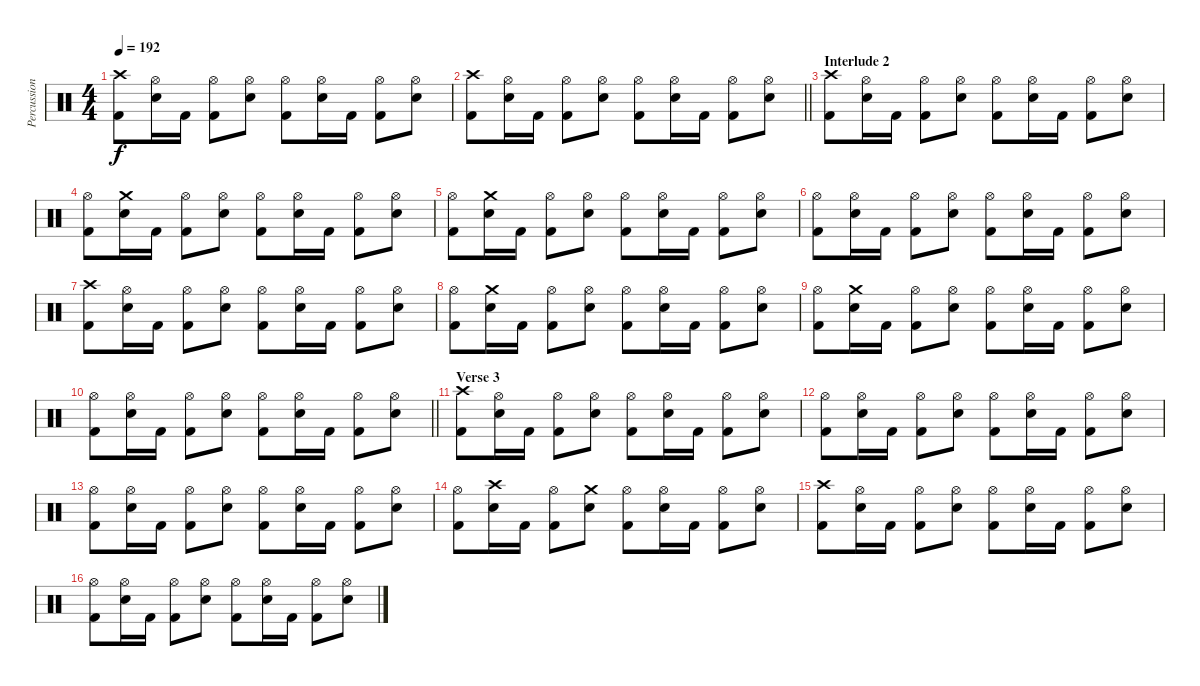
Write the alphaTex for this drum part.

\track ("Percussion" "Percussion") {instrument percussion}
\staff {score}
\articulation defaults
\ts (4 4)
\tempo 192
\clef neutral
\ks c
("Crash high (hit)" "Kick (hit) 2").8{dy f} ("Hi-Hat (open)" "Electric Snare (hit)").16 "Kick (hit) 2".16 ("Hi-Hat (open)" "Kick (hit) 2").8 ("Hi-Hat (open)" "Electric Snare (hit)").8 ("Hi-Hat (open)" "Kick (hit) 2").8 ("Hi-Hat (open)" "Electric Snare (hit)").16 "Kick (hit) 2".16 ("Hi-Hat (open)" "Kick (hit) 2").8 ("Hi-Hat (open)" "Electric Snare (hit)").8 |
\barLineRight lightlight
("Crash high (hit)" "Kick (hit) 2").8 ("Hi-Hat (open)" "Electric Snare (hit)").16 "Kick (hit) 2".16 ("Hi-Hat (open)" "Kick (hit) 2").8 ("Hi-Hat (open)" "Electric Snare (hit)").8 ("Hi-Hat (open)" "Kick (hit) 2").8 ("Hi-Hat (open)" "Electric Snare (hit)").16 "Kick (hit) 2".16 ("Hi-Hat (open)" "Kick (hit) 2").8 ("Hi-Hat (open)" "Electric Snare (hit)").8 |
\section ("" "Interlude 2")
("Crash high (hit)" "Kick (hit) 2").8 ("Hi-Hat (open)" "Electric Snare (hit)").16 "Kick (hit) 2".16 ("Hi-Hat (open)" "Kick (hit) 2").8 ("Hi-Hat (open)" "Electric Snare (hit)").8 ("Hi-Hat (open)" "Kick (hit) 2").8 ("Hi-Hat (open)" "Electric Snare (hit)").16 "Kick (hit) 2".16 ("Hi-Hat (open)" "Kick (hit) 2").8 ("Hi-Hat (open)" "Electric Snare (hit)").8 |
("Hi-Hat (open)" "Kick (hit) 2").8 ("Crash medium (hit)" "Electric Snare (hit)").16 "Kick (hit) 2".16 ("Hi-Hat (open)" "Kick (hit) 2").8 ("Hi-Hat (open)" "Electric Snare (hit)").8 ("Hi-Hat (open)" "Kick (hit) 2").8 ("Hi-Hat (open)" "Electric Snare (hit)").16 "Kick (hit) 2".16 ("Hi-Hat (open)" "Kick (hit) 2").8 ("Hi-Hat (open)" "Electric Snare (hit)").8 |
("Hi-Hat (open)" "Kick (hit) 2").8 ("Crash medium (hit)" "Electric Snare (hit)").16 "Kick (hit) 2".16 ("Hi-Hat (open)" "Kick (hit) 2").8 ("Hi-Hat (open)" "Electric Snare (hit)").8 ("Hi-Hat (open)" "Kick (hit) 2").8 ("Hi-Hat (open)" "Electric Snare (hit)").16 "Kick (hit) 2".16 ("Hi-Hat (open)" "Kick (hit) 2").8 ("Hi-Hat (open)" "Electric Snare (hit)").8 |
("Hi-Hat (open)" "Kick (hit) 2").8 ("Hi-Hat (open)" "Electric Snare (hit)").16 "Kick (hit) 2".16 ("Hi-Hat (open)" "Kick (hit) 2").8 ("Hi-Hat (open)" "Electric Snare (hit)").8 ("Hi-Hat (open)" "Kick (hit) 2").8 ("Hi-Hat (open)" "Electric Snare (hit)").16 "Kick (hit) 2".16 ("Hi-Hat (open)" "Kick (hit) 2").8 ("Hi-Hat (open)" "Electric Snare (hit)").8 |
("Crash high (hit)" "Kick (hit) 2").8 ("Hi-Hat (open)" "Electric Snare (hit)").16 "Kick (hit) 2".16 ("Hi-Hat (open)" "Kick (hit) 2").8 ("Hi-Hat (open)" "Electric Snare (hit)").8 ("Hi-Hat (open)" "Kick (hit) 2").8 ("Hi-Hat (open)" "Electric Snare (hit)").16 "Kick (hit) 2".16 ("Hi-Hat (open)" "Kick (hit) 2").8 ("Hi-Hat (open)" "Electric Snare (hit)").8 |
("Hi-Hat (open)" "Kick (hit) 2").8 ("Crash medium (hit)" "Electric Snare (hit)").16 "Kick (hit) 2".16 ("Hi-Hat (open)" "Kick (hit) 2").8 ("Hi-Hat (open)" "Electric Snare (hit)").8 ("Hi-Hat (open)" "Kick (hit) 2").8 ("Hi-Hat (open)" "Electric Snare (hit)").16 "Kick (hit) 2".16 ("Hi-Hat (open)" "Kick (hit) 2").8 ("Hi-Hat (open)" "Electric Snare (hit)").8 |
("Hi-Hat (open)" "Kick (hit) 2").8 ("Crash medium (hit)" "Electric Snare (hit)").16 "Kick (hit) 2".16 ("Hi-Hat (open)" "Kick (hit) 2").8 ("Hi-Hat (open)" "Electric Snare (hit)").8 ("Hi-Hat (open)" "Kick (hit) 2").8 ("Hi-Hat (open)" "Electric Snare (hit)").16 "Kick (hit) 2".16 ("Hi-Hat (open)" "Kick (hit) 2").8 ("Hi-Hat (open)" "Electric Snare (hit)").8 |
\barLineRight lightlight
("Hi-Hat (open)" "Kick (hit) 2").8 ("Hi-Hat (open)" "Electric Snare (hit)").16 "Kick (hit) 2".16 ("Hi-Hat (open)" "Kick (hit) 2").8 ("Hi-Hat (open)" "Electric Snare (hit)").8 ("Hi-Hat (open)" "Kick (hit) 2").8 ("Hi-Hat (open)" "Electric Snare (hit)").16 "Kick (hit) 2".16 ("Hi-Hat (open)" "Kick (hit) 2").8 ("Hi-Hat (open)" "Electric Snare (hit)").8 |
\section ("" "Verse 3")
("Crash high (hit)" "Kick (hit) 2").8 ("Hi-Hat (open)" "Electric Snare (hit)").16 "Kick (hit) 2".16 ("Hi-Hat (open)" "Kick (hit) 2").8 ("Hi-Hat (open)" "Electric Snare (hit)").8 ("Hi-Hat (open)" "Kick (hit) 2").8 ("Hi-Hat (open)" "Electric Snare (hit)").16 "Kick (hit) 2".16 ("Hi-Hat (open)" "Kick (hit) 2").8 ("Hi-Hat (open)" "Electric Snare (hit)").8 |
("Hi-Hat (open)" "Kick (hit) 2").8 ("Hi-Hat (open)" "Electric Snare (hit)").16 "Kick (hit) 2".16 ("Hi-Hat (open)" "Kick (hit) 2").8 ("Hi-Hat (open)" "Electric Snare (hit)").8 ("Hi-Hat (open)" "Kick (hit) 2").8 ("Hi-Hat (open)" "Electric Snare (hit)").16 "Kick (hit) 2".16 ("Hi-Hat (open)" "Kick (hit) 2").8 ("Hi-Hat (open)" "Electric Snare (hit)").8 |
("Hi-Hat (open)" "Kick (hit) 2").8 ("Hi-Hat (open)" "Electric Snare (hit)").16 "Kick (hit) 2".16 ("Hi-Hat (open)" "Kick (hit) 2").8 ("Hi-Hat (open)" "Electric Snare (hit)").8 ("Hi-Hat (open)" "Kick (hit) 2").8 ("Hi-Hat (open)" "Electric Snare (hit)").16 "Kick (hit) 2".16 ("Hi-Hat (open)" "Kick (hit) 2").8 ("Hi-Hat (open)" "Electric Snare (hit)").8 |
("Hi-Hat (open)" "Kick (hit) 2").8 ("Crash high (hit)" "Electric Snare (hit)").16 "Kick (hit) 2".16 ("Hi-Hat (open)" "Kick (hit) 2").8 ("Crash medium (hit)" "Electric Snare (hit)").8 ("Hi-Hat (open)" "Kick (hit) 2").8 ("Hi-Hat (open)" "Electric Snare (hit)").16 "Kick (hit) 2".16 ("Hi-Hat (open)" "Kick (hit) 2").8 ("Hi-Hat (open)" "Electric Snare (hit)").8 |
("Crash high (hit)" "Kick (hit) 2").8 ("Hi-Hat (open)" "Electric Snare (hit)").16 "Kick (hit) 2".16 ("Hi-Hat (open)" "Kick (hit) 2").8 ("Hi-Hat (open)" "Electric Snare (hit)").8 ("Hi-Hat (open)" "Kick (hit) 2").8 ("Hi-Hat (open)" "Electric Snare (hit)").16 "Kick (hit) 2".16 ("Hi-Hat (open)" "Kick (hit) 2").8 ("Hi-Hat (open)" "Electric Snare (hit)").8 |
("Hi-Hat (open)" "Kick (hit) 2").8 ("Hi-Hat (open)" "Electric Snare (hit)").16 "Kick (hit) 2".16 ("Hi-Hat (open)" "Kick (hit) 2").8 ("Hi-Hat (open)" "Electric Snare (hit)").8 ("Hi-Hat (open)" "Kick (hit) 2").8 ("Hi-Hat (open)" "Electric Snare (hit)").16 "Kick (hit) 2".16 ("Hi-Hat (open)" "Kick (hit) 2").8 ("Hi-Hat (open)" "Electric Snare (hit)").8
